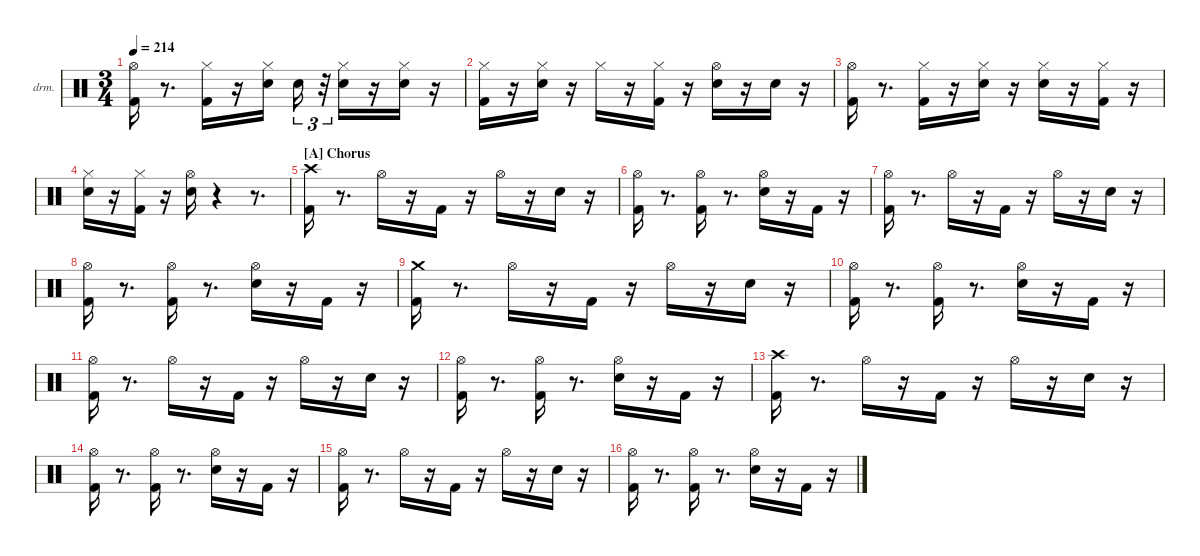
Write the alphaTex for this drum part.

\hideDynamics
\bracketExtendMode nobrackets
\firstSystemTrackNameOrientation horizontal
\otherSystemsTrackNameOrientation horizontal
\track ("EZdrummer 3" "drm.") {instrument percussion}
\staff {score}
\articulation defaults
\ts (3 4)
\tempo 214
\clef neutral
\ks aminor
("Kick (hit) 2" "Hi-Hat (open)"{acc #}).16{dy ff beam Down} r.8{d beam Down} ("Kick (hit) 2" "Hi-Hat (closed)"{acc #}).16{dy mf beam Down} r.16{beam Down} ("Snare (hit) 2" "Hi-Hat (closed)"{acc #}).16{dy f beam Down} "Snare (hit) 2".16{tu (3 2) dy p beam Down} r.32{tu (3 2) beam Down} ("Snare (hit) 2" "Hi-Hat (closed)"{acc #}).16{dy ppp beam Down} r.16{beam Down} ("Snare (hit) 2" "Hi-Hat (closed)"{acc #}).16{dy pp beam Down} r.16{beam Down} |
("Kick (hit) 2" "Hi-Hat (closed)"{acc #}).16{dy mf beam Down} r.16{beam Down} ("Snare (hit) 2" "Hi-Hat (closed)"{acc #}).16{dy f beam Down} r.16{beam Down} "Hi-Hat (closed)"{acc #}.16{beam Down} r.16{beam Down} ("Kick (hit) 2" "Hi-Hat (closed)"{acc #}).16{beam Down} r.16{beam Down} ("Snare (hit) 2" "Hi-Hat (open)"{acc #}).16{beam Down} r.16{beam Down} "Snare (hit) 2".16{dy pp beam Down} r.16{beam Down} |
("Kick (hit) 2" "Hi-Hat (open)"{acc #}).16{dy ff beam Down} r.8{d beam Down} ("Kick (hit) 2" "Hi-Hat (closed)"{acc #}).16{dy f beam Down} r.16{beam Down} ("Snare (hit) 2" "Hi-Hat (closed)"{acc #}).16{beam Down} r.16{beam Down} ("Snare (hit) 2" "Hi-Hat (closed)"{acc #}).16{dy ppp beam Down} r.16{beam Down} ("Kick (hit) 2" "Hi-Hat (closed)"{acc #}).16{dy mf beam Down} r.16{beam Down} |
("Snare (hit) 2" "Hi-Hat (closed)"{acc #}).16{beam Down} r.16{beam Down} ("Kick (hit) 2" "Hi-Hat (closed)"{acc #}).16{beam Down} r.16{beam Down} ("Snare (hit) 2" "Hi-Hat (open)"{acc #}).16{dy ff beam Down} r.4{beam Down} r.8{d beam Down} |
\section ("A" "Chorus")
("Kick (hit) 2" "Crash high (hit)"{acc #}).16{dy fff beam Down} r.8{d beam Down} "Hi-Hat (open)"{acc #}.16{dy mf beam Down} r.16{beam Down} "Kick (hit) 2".16{dy ff beam Up} r.16{beam Up} "Hi-Hat (open)"{acc #}.16{dy f beam Down} r.16{beam Down} "Snare (hit) 2".16{dy ff beam Down} r.16{beam Down} |
("Kick (hit) 2" "Hi-Hat (open)"{acc #}).16{beam Down} r.8{d beam Down} ("Kick (hit) 2" "Hi-Hat (open)"{acc #}).16{dy f beam Down} r.8{d beam Down} ("Snare (hit) 2" "Hi-Hat (open)"{acc #}).16{beam Down} r.16{beam Down} "Kick (hit) 2".16{dy mp beam Up} r.16{beam Up} |
("Kick (hit) 2" "Hi-Hat (open)"{acc #}).16{dy fff beam Down} r.8{d beam Down} "Hi-Hat (open)"{acc #}.16{dy mf beam Down} r.16{beam Down} "Kick (hit) 2".16{dy ff beam Up} r.16{beam Up} "Hi-Hat (open)"{acc #}.16{dy f beam Down} r.16{beam Down} "Snare (hit) 2".16{dy ff beam Down} r.16{beam Down} |
("Kick (hit) 2" "Hi-Hat (open)"{acc #}).16{dy fff beam Down} r.8{d beam Down} ("Kick (hit) 2" "Hi-Hat (open)"{acc #}).16{dy ff beam Down} r.8{d beam Down} ("Snare (hit) 2" "Hi-Hat (open)"{acc #}).16{dy f beam Down} r.16{beam Down} "Kick (hit) 2".16{dy mp beam Up} r.16{beam Up} |
("Kick (hit) 2" "Crash medium (hit)").16{dy fff beam Down} r.8{d beam Down} "Hi-Hat (open)"{acc #}.16{dy mf beam Down} r.16{beam Down} "Kick (hit) 2".16{dy ff beam Up} r.16{beam Up} "Hi-Hat (open)"{acc #}.16{dy f beam Down} r.16{beam Down} "Snare (hit) 2".16{dy ff beam Down} r.16{beam Down} |
("Kick (hit) 2" "Hi-Hat (open)"{acc #}).16{dy fff beam Down} r.8{d beam Down} ("Kick (hit) 2" "Hi-Hat (open)"{acc #}).16{dy f beam Down} r.8{d beam Down} ("Snare (hit) 2" "Hi-Hat (open)"{acc #}).16{beam Down} r.16{beam Down} "Kick (hit) 2".16{dy mp beam Up} r.16{beam Up} |
("Kick (hit) 2" "Hi-Hat (open)"{acc #}).16{dy fff beam Down} r.8{d beam Down} "Hi-Hat (open)"{acc #}.16{dy mf beam Down} r.16{beam Down} "Kick (hit) 2".16{dy ff beam Up} r.16{beam Up} "Hi-Hat (open)"{acc #}.16{dy f beam Down} r.16{beam Down} "Snare (hit) 2".16{dy ff beam Down} r.16{beam Down} |
("Kick (hit) 2" "Hi-Hat (open)"{acc #}).16{dy fff beam Down} r.8{d beam Down} ("Kick (hit) 2" "Hi-Hat (open)"{acc #}).16{dy ff beam Down} r.8{d beam Down} ("Snare (hit) 2" "Hi-Hat (open)"{acc #}).16{dy f beam Down} r.16{beam Down} "Kick (hit) 2".16{dy mp beam Up} r.16{beam Up} |
("Kick (hit) 2" "Crash high (hit)"{acc #}).16{dy fff beam Down} r.8{d beam Down} "Hi-Hat (open)"{acc #}.16{dy mf beam Down} r.16{beam Down} "Kick (hit) 2".16{dy ff beam Up} r.16{beam Up} "Hi-Hat (open)"{acc #}.16{dy f beam Down} r.16{beam Down} "Snare (hit) 2".16{dy ff beam Down} r.16{beam Down} |
("Kick (hit) 2" "Hi-Hat (open)"{acc #}).16{beam Down} r.8{d beam Down} ("Kick (hit) 2" "Hi-Hat (open)"{acc #}).16{dy f beam Down} r.8{d beam Down} ("Snare (hit) 2" "Hi-Hat (open)"{acc #}).16{beam Down} r.16{beam Down} "Kick (hit) 2".16{dy mp beam Up} r.16{beam Up} |
("Kick (hit) 2" "Hi-Hat (open)"{acc #}).16{dy fff beam Down} r.8{d beam Down} "Hi-Hat (open)"{acc #}.16{dy mf beam Down} r.16{beam Down} "Kick (hit) 2".16{dy ff beam Up} r.16{beam Up} "Hi-Hat (open)"{acc #}.16{dy f beam Down} r.16{beam Down} "Snare (hit) 2".16{dy ff beam Down} r.16{beam Down} |
("Kick (hit) 2" "Hi-Hat (open)"{acc #}).16{dy fff beam Down} r.8{d beam Down} ("Kick (hit) 2" "Hi-Hat (open)"{acc #}).16{dy ff beam Down} r.8{d beam Down} ("Snare (hit) 2" "Hi-Hat (open)"{acc #}).16{dy f beam Down} r.16{beam Down} "Kick (hit) 2".16{dy mp beam Up} r.16{beam Up}
